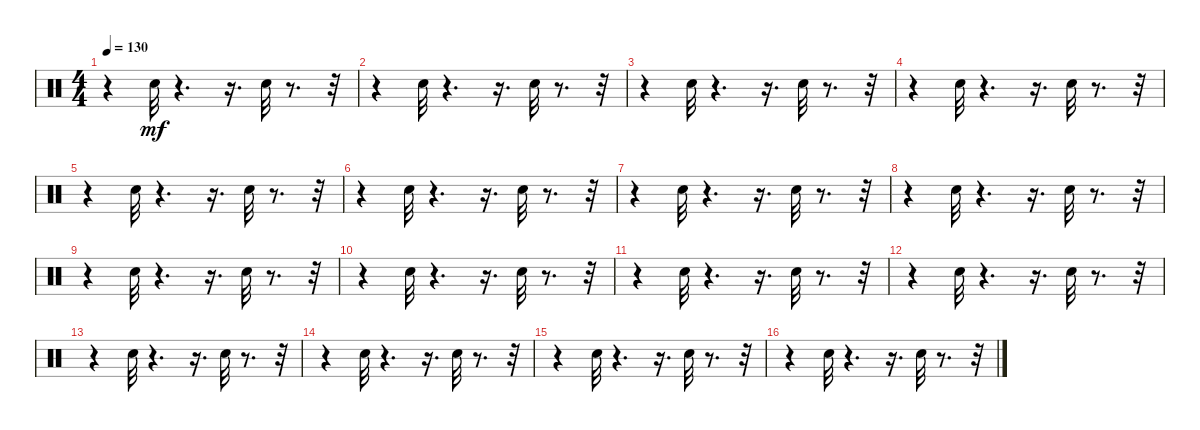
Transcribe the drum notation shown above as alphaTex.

\track "" {instrument percussion}
\staff {score}
\articulation defaults
\ts (4 4)
\tempo 130
\clef neutral
\ks c
r.4{dy mf} "Electric Snare (hit)".32 r.4{d} r.16{d} "Electric Snare (hit)".32 r.8{d} r.32 |
r.4 "Electric Snare (hit)".32 r.4{d} r.16{d} "Electric Snare (hit)".32 r.8{d} r.32 |
r.4 "Electric Snare (hit)".32 r.4{d} r.16{d} "Electric Snare (hit)".32 r.8{d} r.32 |
r.4 "Electric Snare (hit)".32 r.4{d} r.16{d} "Electric Snare (hit)".32 r.8{d} r.32 |
r.4 "Electric Snare (hit)".32 r.4{d} r.16{d} "Electric Snare (hit)".32 r.8{d} r.32 |
r.4 "Electric Snare (hit)".32 r.4{d} r.16{d} "Electric Snare (hit)".32 r.8{d} r.32 |
r.4 "Electric Snare (hit)".32 r.4{d} r.16{d} "Electric Snare (hit)".32 r.8{d} r.32 |
r.4 "Electric Snare (hit)".32 r.4{d} r.16{d} "Electric Snare (hit)".32 r.8{d} r.32 |
r.4 "Electric Snare (hit)".32 r.4{d} r.16{d} "Electric Snare (hit)".32 r.8{d} r.32 |
r.4 "Electric Snare (hit)".32 r.4{d} r.16{d} "Electric Snare (hit)".32 r.8{d} r.32 |
r.4 "Electric Snare (hit)".32 r.4{d} r.16{d} "Electric Snare (hit)".32 r.8{d} r.32 |
r.4 "Electric Snare (hit)".32 r.4{d} r.16{d} "Electric Snare (hit)".32 r.8{d} r.32 |
r.4 "Electric Snare (hit)".32 r.4{d} r.16{d} "Electric Snare (hit)".32 r.8{d} r.32 |
r.4 "Electric Snare (hit)".32 r.4{d} r.16{d} "Electric Snare (hit)".32 r.8{d} r.32 |
r.4 "Electric Snare (hit)".32 r.4{d} r.16{d} "Electric Snare (hit)".32 r.8{d} r.32 |
r.4 "Electric Snare (hit)".32 r.4{d} r.16{d} "Electric Snare (hit)".32 r.8{d} r.32
